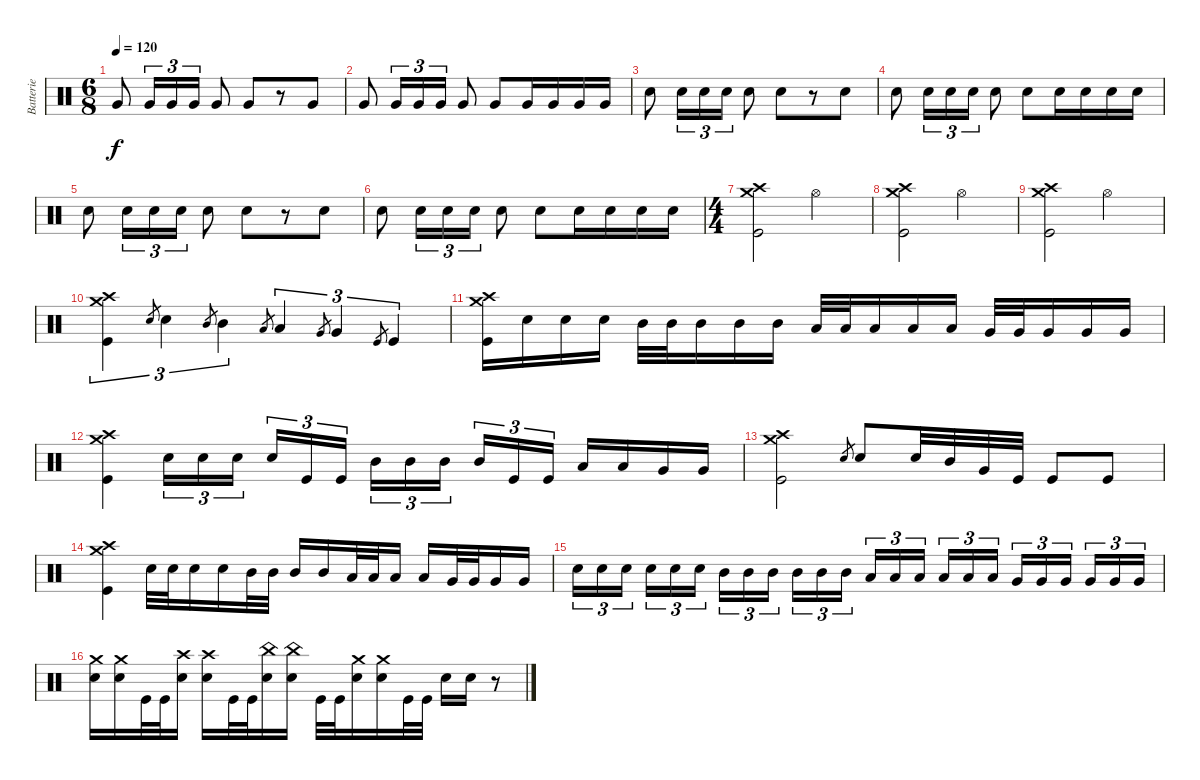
\track ("Batterie" "Batterie") {instrument percussion}
\staff {score}
\articulation defaults
\ts (6 8)
\tempo 120
\clef neutral
\ks c "Very Low Tom (hit)".8{dy f} "Very Low Tom (hit)".16{tu (3 2)} "Very Low Tom (hit)".16{tu (3 2)} "Very Low Tom (hit)".16{tu (3 2)} "Very Low Tom (hit)".8 "Very Low Tom (hit)".8
r.8 "Very Low Tom (hit)".8 |
"Very Low Tom (hit)".8 "Very Low Tom (hit)".16{tu (3 2)} "Very Low Tom (hit)".16{tu (3 2)} "Very Low Tom (hit)".16{tu (3 2)} "Very Low Tom (hit)".8 "Very Low Tom (hit)".8 "Very Low Tom (hit)".16 "Very Low Tom (hit)".16 "Very Low Tom (hit)".16 "Very Low Tom (hit)".16 |
"Electric Snare (hit)".8 "Electric Snare (hit)".16{tu (3 2)} "Electric Snare (hit)".16{tu (3 2)} "Electric Snare (hit)".16{tu (3 2)} "Electric Snare (hit)".8 "Electric Snare (hit)".8 r.8 "Electric Snare (hit)".8 |
"Electric Snare (hit)".8 "Electric Snare (hit)".16{tu (3 2)} "Electric Snare (hit)".16{tu (3 2)} "Electric Snare (hit)".16{tu (3 2)} "Electric Snare (hit)".8 "Electric Snare (hit)".8 "Electric Snare (hit)".16 "Electric Snare (hit)".16 "Electric Snare (hit)".16 "Electric Snare (hit)".16 |
"Electric Snare (hit)".8 "Electric Snare (hit)".16{tu (3 2)} "Electric Snare (hit)".16{tu (3 2)} "Electric Snare (hit)".16{tu (3 2)} "Electric Snare (hit)".8 "Electric Snare (hit)".8 r.8 "Electric Snare (hit)".8 |
"Electric Snare (hit)".8 "Electric Snare (hit)".16{tu (3 2)} "Electric Snare (hit)".16{tu (3 2)} "Electric Snare (hit)".16{tu (3 2)} "Electric Snare (hit)".8 "Electric Snare (hit)".8 "Electric Snare (hit)".16 "Electric Snare (hit)".16 "Electric Snare (hit)".16 "Electric Snare (hit)".16 |
\ts (4 4)
("Crash high (hit)" "Crash medium (hit)" "Kick (hit)").2{volume 16} "Hi-Hat (open)".2 |
("Crash high (hit)" "Crash medium (hit)" "Kick (hit)").2 "Hi-Hat (open)".2 |
("Crash high (hit)" "Crash medium (hit)" "Kick (hit)").2 "Hi-Hat (open)".2 |
("Crash high (hit)" "Crash medium (hit)" "Kick (hit)").4{tu (3 2) volume 16} "Electric Snare (hit)".8{gr} "Electric Snare (hit)".4{tu (3 2)} "Mid Tom (hit)".8{gr} "Mid Tom (hit)".4{tu (3 2)} "Low Tom (hit)".8{gr} "Low Tom (hit)".4{tu (3 2)} "Very Low Tom (hit)".8{gr} "Very Low Tom (hit)".4{tu (3 2)} "Kick (hit)".8{gr} "Kick (hit)".4{tu (3 2)} |
("Crash high (hit)" "Crash medium (hit)" "Kick (hit)").16 "Electric Snare (hit)".16 "Electric Snare (hit)".16 "Electric Snare (hit)".16 "Mid Tom (hit)".32 "Mid Tom (hit)".32 "Mid Tom (hit)".16 "Mid Tom (hit)".16 "Mid Tom (hit)".16 "Low Tom (hit)".32 "Low Tom (hit)".32 "Low Tom (hit)".16 "Low Tom (hit)".16 "Low Tom (hit)".16 "Very Low Tom (hit)".32 "Very Low Tom (hit)".32 "Very Low Tom (hit)".16 "Very Low Tom (hit)".16 "Very Low Tom (hit)".16 |
("Crash high (hit)" "Crash medium (hit)" "Kick (hit)").4 "Electric Snare (hit)".16{tu (3 2)} "Electric Snare (hit)".16{tu (3 2)} "Electric Snare (hit)".16{tu (3 2)} "Electric Snare (hit)".16{tu (3 2)} "Kick (hit)".16{tu (3 2)} "Kick (hit)".16{tu (3 2)} "Mid Tom (hit)".16{tu (3 2)} "Mid Tom (hit)".16{tu (3 2)} "Mid Tom (hit)".16{tu (3 2)} "Mid Tom (hit)".16{tu (3 2)} "Kick (hit)".16{tu (3 2)} "Kick (hit)".16{tu (3 2)} "Low Tom (hit)".16 "Low Tom (hit)".16 "Very Low Tom (hit)".16 "Very Low Tom (hit)".16 |
("Crash medium (hit)" "Crash high (hit)" "Kick (hit)").2 "Electric Snare (hit)".8{gr} "Electric Snare (hit)".8 "Electric Snare (hit)".32 "Mid Tom (hit)".32 "Very Low Tom (hit)".32 "Kick (hit)".32 "Kick (hit)".8 "Kick (hit)".8 |
("Crash high (hit)" "Crash medium (hit)" "Kick (hit)").4 "Electric Snare (hit)".32 "Electric Snare (hit)".32 "Electric Snare (hit)".16 "Electric Snare (hit)".16 "Mid Tom (hit)".32 "Mid Tom (hit)".32 "Mid Tom (hit)".16 "Mid Tom (hit)".16 "Low Tom (hit)".32 "Low Tom (hit)".32 "Low Tom (hit)".16 "Low Tom (hit)".16 "Very Low Tom (hit)".32 "Very Low Tom (hit)".32 "Very Low Tom (hit)".16 "Very Low Tom (hit)".16 |
"Electric Snare (hit)".16{tu (3 2)} "Electric Snare (hit)".16{tu (3 2)} "Electric Snare (hit)".16{tu (3 2)} "Electric Snare (hit)".16{tu (3 2)} "Electric Snare (hit)".16{tu (3 2)} "Electric Snare (hit)".16{tu (3 2)} "Mid Tom (hit)".16{tu (3 2)} "Mid Tom (hit)".16{tu (3 2)} "Mid Tom (hit)".16{tu (3 2)} "Mid Tom (hit)".16{tu (3 2)} "Mid Tom (hit)".16{tu (3 2)} "Mid Tom (hit)".16{tu (3 2)} "Low Tom (hit)".16{tu (3 2)} "Low Tom (hit)".16{tu (3 2)} "Low Tom (hit)".16{tu (3 2)} "Low Tom (hit)".16{tu (3 2)} "Low Tom (hit)".16{tu (3 2)} "Low Tom (hit)".16{tu (3 2)} "Very Low Tom (hit)".16{tu (3 2)} "Very Low Tom (hit)".16{tu (3 2)} "Very Low Tom (hit)".16{tu (3 2)} "Very Low Tom (hit)".16{tu (3 2)} "Very Low Tom (hit)".16{tu (3 2)} "Very Low Tom (hit)".16{tu (3 2)} |
("Crash medium (hit)" "Electric Snare (hit)").16 ("Crash medium (hit)" "Electric Snare (hit)").16 "Kick (hit)".32 "Kick (hit)".32 ("Crash high (hit)" "Electric Snare (hit)").16 ("Crash high (hit)" "Electric Snare (hit)").16 "Kick (hit)".32 "Kick (hit)".32 ("China (hit)" "Electric Snare (hit)").16 ("China (hit)" "Electric Snare (hit)").16 "Kick (hit)".32 "Kick (hit)".32 ("Crash medium (hit)" "Electric Snare (hit)").16 ("Crash medium (hit)" "Electric Snare (hit)").16 "Kick (hit)".32 "Kick (hit)".32 "Electric Snare (hit)".16 "Electric Snare (hit)".16 r.8
